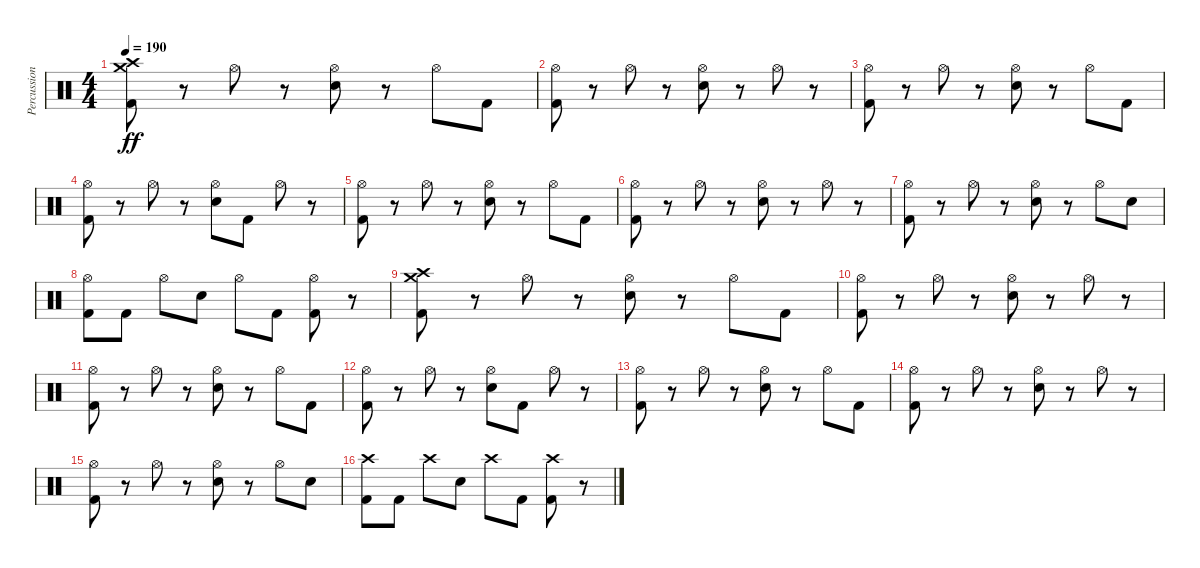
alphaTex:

\track ("Percussion" "Percussion") {instrument percussion}
\staff {score}
\articulation defaults
\ts (4 4)
\tempo 190
\clef neutral
\ks c
("Kick (hit) 2" "Crash high (hit)" "Crash medium (hit)").8{dy ff} r.8 "Hi-Hat (open)".8 r.8 ("Electric Snare (hit)" "Hi-Hat (open)").8 r.8 "Hi-Hat (open)".8 "Kick (hit) 2".8 |
("Kick (hit) 2" "Hi-Hat (open)").8 r.8 "Hi-Hat (open)".8 r.8 ("Electric Snare (hit)" "Hi-Hat (open)").8 r.8 "Hi-Hat (open)".8 r.8 |
("Kick (hit) 2" "Hi-Hat (open)").8 r.8 "Hi-Hat (open)".8 r.8 ("Electric Snare (hit)" "Hi-Hat (open)").8 r.8 "Hi-Hat (open)".8 "Kick (hit) 2".8 |
("Kick (hit) 2" "Hi-Hat (open)").8 r.8 "Hi-Hat (open)".8 r.8 ("Electric Snare (hit)" "Hi-Hat (open)").8 "Kick (hit) 2".8 "Hi-Hat (open)".8 r.8 |
("Kick (hit) 2" "Hi-Hat (open)").8 r.8 "Hi-Hat (open)".8 r.8 ("Electric Snare (hit)" "Hi-Hat (open)").8 r.8 "Hi-Hat (open)".8 "Kick (hit) 2".8 |
("Kick (hit) 2" "Hi-Hat (open)").8 r.8 "Hi-Hat (open)".8 r.8 ("Electric Snare (hit)" "Hi-Hat (open)").8 r.8 "Hi-Hat (open)".8 r.8 |
("Kick (hit) 2" "Hi-Hat (open)").8 r.8 "Hi-Hat (open)".8 r.8 ("Electric Snare (hit)" "Hi-Hat (open)").8 r.8 "Hi-Hat (open)".8 "Electric Snare (hit)".8 |
("Kick (hit) 2" "Hi-Hat (open)").8 "Kick (hit) 2".8 "Hi-Hat (open)".8 "Electric Snare (hit)".8 "Hi-Hat (open)".8 "Kick (hit) 2".8 ("Kick (hit) 2" "Hi-Hat (open)").8 r.8 |
("Kick (hit) 2" "Crash high (hit)" "Crash medium (hit)").8 r.8 "Hi-Hat (open)".8 r.8 ("Electric Snare (hit)" "Hi-Hat (open)").8 r.8 "Hi-Hat (open)".8 "Kick (hit) 2".8 |
("Kick (hit) 2" "Hi-Hat (open)").8 r.8 "Hi-Hat (open)".8 r.8 ("Electric Snare (hit)" "Hi-Hat (open)").8 r.8 "Hi-Hat (open)".8 r.8 |
("Kick (hit) 2" "Hi-Hat (open)").8 r.8 "Hi-Hat (open)".8 r.8 ("Electric Snare (hit)" "Hi-Hat (open)").8 r.8 "Hi-Hat (open)".8 "Kick (hit) 2".8 |
("Kick (hit) 2" "Hi-Hat (open)").8 r.8 "Hi-Hat (open)".8 r.8 ("Electric Snare (hit)" "Hi-Hat (open)").8 "Kick (hit) 2".8 "Hi-Hat (open)".8 r.8 |
("Kick (hit) 2" "Hi-Hat (open)").8 r.8 "Hi-Hat (open)".8 r.8 ("Electric Snare (hit)" "Hi-Hat (open)").8 r.8 "Hi-Hat (open)".8 "Kick (hit) 2".8 |
("Kick (hit) 2" "Hi-Hat (open)").8 r.8 "Hi-Hat (open)".8 r.8 ("Electric Snare (hit)" "Hi-Hat (open)").8 r.8 "Hi-Hat (open)".8 r.8 |
("Kick (hit) 2" "Hi-Hat (open)").8 r.8 "Hi-Hat (open)".8 r.8 ("Electric Snare (hit)" "Hi-Hat (open)").8 r.8 "Hi-Hat (open)".8 "Electric Snare (hit)".8 |
("Kick (hit) 2" "Crash high (hit)").8 "Kick (hit) 2".8 "Crash high (hit)".8 "Electric Snare (hit)".8 "Crash high (hit)".8 "Kick (hit) 2".8 ("Kick (hit) 2" "Crash high (hit)").8 r.8
